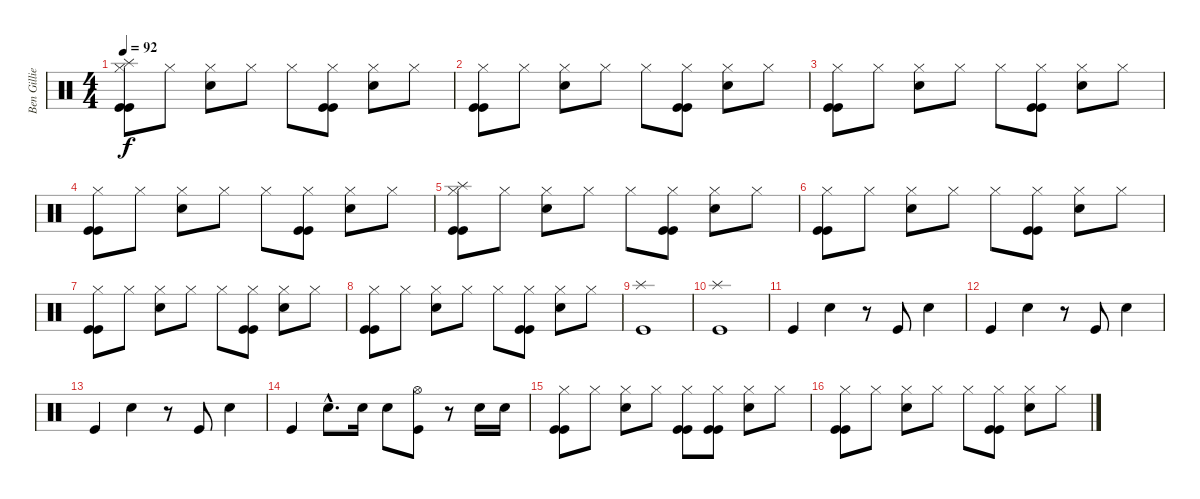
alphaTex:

\track ("Ben Gillies (Drums)" "Ben Gillie") {instrument percussion}
\staff {score}
\articulation defaults
\ts (4 4)
\tempo 92
\clef neutral
\ks c
("Splash (hit)" "Hi-Hat (closed)" "Kick (hit)" "Kick (hit)").8{dy f} "Hi-Hat (closed)".8 ("Electric Snare (hit)" "Hi-Hat (closed)").8 "Hi-Hat (closed)".8 "Hi-Hat (closed)".8 ("Hi-Hat (closed)" "Kick (hit)" "Kick (hit)").8 ("Electric Snare (hit)" "Hi-Hat (closed)").8 "Hi-Hat (closed)".8 |
("Hi-Hat (closed)" "Kick (hit)" "Kick (hit)").8 "Hi-Hat (closed)".8 ("Electric Snare (hit)" "Hi-Hat (closed)").8 "Hi-Hat (closed)".8 "Hi-Hat (closed)".8 ("Hi-Hat (closed)" "Kick (hit)" "Kick (hit)").8 ("Electric Snare (hit)" "Hi-Hat (closed)").8 "Hi-Hat (closed)".8 |
("Hi-Hat (closed)" "Kick (hit)" "Kick (hit)").8 "Hi-Hat (closed)".8 ("Electric Snare (hit)" "Hi-Hat (closed)").8 "Hi-Hat (closed)".8 "Hi-Hat (closed)".8 ("Hi-Hat (closed)" "Kick (hit)" "Kick (hit)").8 ("Electric Snare (hit)" "Hi-Hat (closed)").8 "Hi-Hat (closed)".8 |
("Hi-Hat (closed)" "Kick (hit)" "Kick (hit)").8 "Hi-Hat (closed)".8 ("Electric Snare (hit)" "Hi-Hat (closed)").8 "Hi-Hat (closed)".8 "Hi-Hat (closed)".8 ("Hi-Hat (closed)" "Kick (hit)" "Kick (hit)").8 ("Electric Snare (hit)" "Hi-Hat (closed)").8 "Hi-Hat (closed)".8 |
("Splash (hit)" "Hi-Hat (closed)" "Kick (hit)" "Kick (hit)").8 "Hi-Hat (closed)".8 ("Electric Snare (hit)" "Hi-Hat (closed)").8 "Hi-Hat (closed)".8 "Hi-Hat (closed)".8 ("Hi-Hat (closed)" "Kick (hit)" "Kick (hit)").8 ("Electric Snare (hit)" "Hi-Hat (closed)").8 "Hi-Hat (closed)".8 |
("Hi-Hat (closed)" "Kick (hit)" "Kick (hit)").8 "Hi-Hat (closed)".8 ("Electric Snare (hit)" "Hi-Hat (closed)").8 "Hi-Hat (closed)".8 "Hi-Hat (closed)".8 ("Hi-Hat (closed)" "Kick (hit)" "Kick (hit)").8 ("Electric Snare (hit)" "Hi-Hat (closed)").8 "Hi-Hat (closed)".8 |
("Hi-Hat (closed)" "Kick (hit)" "Kick (hit)").8 "Hi-Hat (closed)".8 ("Electric Snare (hit)" "Hi-Hat (closed)").8 "Hi-Hat (closed)".8 "Hi-Hat (closed)".8 ("Hi-Hat (closed)" "Kick (hit)" "Kick (hit)").8 ("Electric Snare (hit)" "Hi-Hat (closed)").8 "Hi-Hat (closed)".8 |
("Hi-Hat (closed)" "Kick (hit)" "Kick (hit)").8 "Hi-Hat (closed)".8 ("Electric Snare (hit)" "Hi-Hat (closed)").8 "Hi-Hat (closed)".8 "Hi-Hat (closed)".8 ("Hi-Hat (closed)" "Kick (hit)" "Kick (hit)").8 ("Electric Snare (hit)" "Hi-Hat (closed)").8 "Hi-Hat (closed)".8 |
("Splash (hit)" "Kick (hit)").1 |
("Splash (hit)" "Kick (hit)").1 |
"Kick (hit)".4 "Electric Snare (hit)".4 r.8 "Kick (hit)".8 "Electric Snare (hit)".4 |
"Kick (hit)".4 "Electric Snare (hit)".4 r.8 "Kick (hit)".8 "Electric Snare (hit)".4 |
"Kick (hit)".4 "Electric Snare (hit)".4 r.8 "Kick (hit)".8 "Electric Snare (hit)".4 |
"Kick (hit)".4 "Electric Snare (hit)"{hac}.8{d} "Electric Snare (hit)".16 "Electric Snare (hit)".8 ("Hi-Hat (open)" "Kick (hit)").8 r.8 "Electric Snare (hit)".16 "Electric Snare (hit)".16 |
("Hi-Hat (closed)" "Kick (hit)" "Kick (hit)").8 "Hi-Hat (closed)".8 ("Electric Snare (hit)" "Hi-Hat (closed)").8 "Hi-Hat (closed)".8 ("Hi-Hat (closed)" "Kick (hit)" "Kick (hit)").8 ("Hi-Hat (closed)" "Kick (hit)" "Kick (hit)").8 ("Electric Snare (hit)" "Hi-Hat (closed)").8 "Hi-Hat (closed)".8 |
("Hi-Hat (closed)" "Kick (hit)" "Kick (hit)").8 "Hi-Hat (closed)".8 ("Electric Snare (hit)" "Hi-Hat (closed)").8 "Hi-Hat (closed)".8 "Hi-Hat (closed)".8 ("Hi-Hat (closed)" "Kick (hit)" "Kick (hit)").8 ("Electric Snare (hit)" "Hi-Hat (closed)").8 "Hi-Hat (closed)".8
